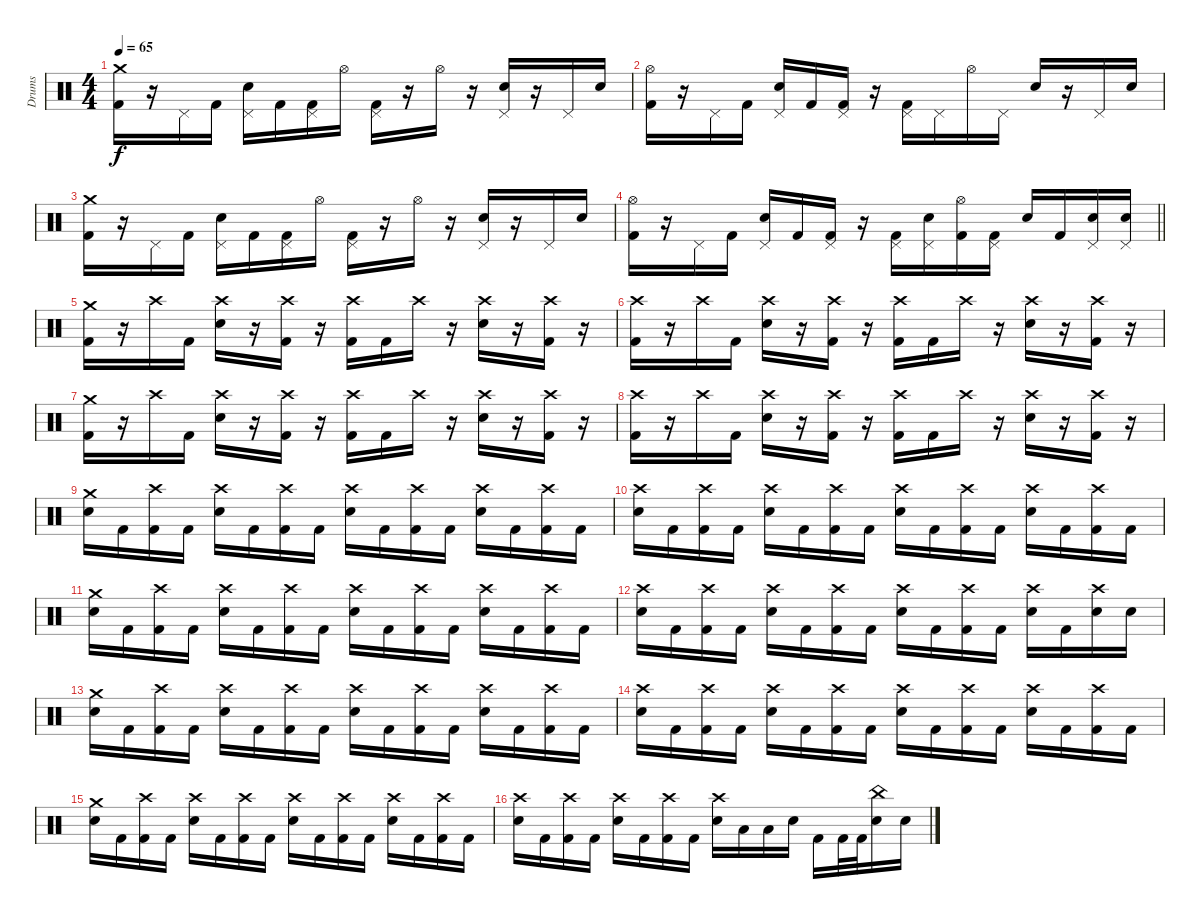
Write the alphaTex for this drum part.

\track ("Drums" "Drums") {instrument percussion}
\staff {score}
\articulation defaults
\ts (4 4)
\tempo 65
\clef neutral
\ks c
("Crash medium (hit)" "Kick (hit) 2").16{dy f} r.16 "Pedal Hi-Hat (hit)".16 "Kick (hit) 2".16 ("Pedal Hi-Hat (hit)" "Electric Snare (hit)").16 "Kick (hit) 2".16 ("Pedal Hi-Hat (hit)" "Kick (hit) 2").16 "Hi-Hat (open)".16 ("Pedal Hi-Hat (hit)" "Kick (hit) 2").16 r.16 "Hi-Hat (open)".16 r.16 ("Pedal Hi-Hat (hit)" "Electric Snare (hit)").16 r.16 "Pedal Hi-Hat (hit)".16 "Electric Snare (hit)".16 |
("Hi-Hat (open)" "Kick (hit) 2").16 r.16 "Pedal Hi-Hat (hit)".16 "Kick (hit) 2".16 ("Pedal Hi-Hat (hit)" "Electric Snare (hit)").16 "Kick (hit) 2".16 ("Pedal Hi-Hat (hit)" "Kick (hit) 2").16 r.16 ("Pedal Hi-Hat (hit)" "Kick (hit) 2").16 "Pedal Hi-Hat (hit)".16 "Hi-Hat (open)".16 "Pedal Hi-Hat (hit)".16 "Electric Snare (hit)".16 r.16 "Pedal Hi-Hat (hit)".16 "Electric Snare (hit)".16 |
("Crash medium (hit)" "Kick (hit) 2").16 r.16 "Pedal Hi-Hat (hit)".16 "Kick (hit) 2".16 ("Pedal Hi-Hat (hit)" "Electric Snare (hit)").16 "Kick (hit) 2".16 ("Pedal Hi-Hat (hit)" "Kick (hit) 2").16 "Hi-Hat (open)".16 ("Pedal Hi-Hat (hit)" "Kick (hit) 2").16 r.16 "Hi-Hat (open)".16 r.16 ("Pedal Hi-Hat (hit)" "Electric Snare (hit)").16 r.16 "Pedal Hi-Hat (hit)".16 "Electric Snare (hit)".16 |
\barLineRight lightlight
("Hi-Hat (open)" "Kick (hit) 2").16 r.16 "Pedal Hi-Hat (hit)".16 "Kick (hit) 2".16 ("Pedal Hi-Hat (hit)" "Electric Snare (hit)").16 "Kick (hit) 2".16 ("Pedal Hi-Hat (hit)" "Kick (hit) 2").16 r.16 ("Pedal Hi-Hat (hit)" "Kick (hit) 2").16 ("Pedal Hi-Hat (hit)" "Electric Snare (hit)").16 ("Hi-Hat (open)" "Kick (hit) 2").16 ("Pedal Hi-Hat (hit)" "Kick (hit) 2").16 "Electric Snare (hit)".16 "Kick (hit) 2".16 ("Pedal Hi-Hat (hit)" "Electric Snare (hit)").16 ("Pedal Hi-Hat (hit)" "Electric Snare (hit)").16 |
("Crash medium (hit)" "Kick (hit) 2").16 r.16 "Crash high (hit)".16 "Kick (hit) 2".16 ("Crash high (hit)" "Electric Snare (hit)").16 r.16 ("Crash high (hit)" "Kick (hit) 2").16 r.16 ("Crash high (hit)" "Kick (hit) 2").16 "Kick (hit) 2".16 "Crash high (hit)".16 r.16 ("Crash high (hit)" "Electric Snare (hit)").16 r.16 ("Crash high (hit)" "Kick (hit) 2").16 r.16 |
("Crash high (hit)" "Kick (hit) 2").16 r.16 "Crash high (hit)".16 "Kick (hit) 2".16 ("Crash high (hit)" "Electric Snare (hit)").16 r.16 ("Crash high (hit)" "Kick (hit) 2").16 r.16 ("Crash high (hit)" "Kick (hit) 2").16 "Kick (hit) 2".16 "Crash high (hit)".16 r.16 ("Crash high (hit)" "Electric Snare (hit)").16 r.16 ("Crash high (hit)" "Kick (hit) 2").16 r.16 |
("Crash medium (hit)" "Kick (hit) 2").16 r.16 "Crash high (hit)".16 "Kick (hit) 2".16 ("Crash high (hit)" "Electric Snare (hit)").16 r.16 ("Crash high (hit)" "Kick (hit) 2").16 r.16 ("Crash high (hit)" "Kick (hit) 2").16 "Kick (hit) 2".16 "Crash high (hit)".16 r.16 ("Crash high (hit)" "Electric Snare (hit)").16 r.16 ("Crash high (hit)" "Kick (hit) 2").16 r.16 |
("Crash high (hit)" "Kick (hit) 2").16 r.16 "Crash high (hit)".16 "Kick (hit) 2".16 ("Crash high (hit)" "Electric Snare (hit)").16 r.16 ("Crash high (hit)" "Kick (hit) 2").16 r.16 ("Crash high (hit)" "Kick (hit) 2").16 "Kick (hit) 2".16 "Crash high (hit)".16 r.16 ("Crash high (hit)" "Electric Snare (hit)").16 r.16 ("Crash high (hit)" "Kick (hit) 2").16 r.16 |
("Crash medium (hit)" "Electric Snare (hit)").16 "Kick (hit) 2".16 ("Crash high (hit)" "Kick (hit) 2").16 "Kick (hit) 2".16 ("Crash high (hit)" "Electric Snare (hit)").16 "Kick (hit) 2".16 ("Crash high (hit)" "Kick (hit) 2").16 "Kick (hit) 2".16 ("Crash high (hit)" "Electric Snare (hit)").16 "Kick (hit) 2".16 ("Crash high (hit)" "Kick (hit) 2").16 "Kick (hit) 2".16 ("Crash high (hit)" "Electric Snare (hit)").16 "Kick (hit) 2".16 ("Crash high (hit)" "Kick (hit) 2").16 "Kick (hit) 2".16 |
("Crash high (hit)" "Electric Snare (hit)").16 "Kick (hit) 2".16 ("Crash high (hit)" "Kick (hit) 2").16 "Kick (hit) 2".16 ("Crash high (hit)" "Electric Snare (hit)").16 "Kick (hit) 2".16 ("Crash high (hit)" "Kick (hit) 2").16 "Kick (hit) 2".16 ("Crash high (hit)" "Electric Snare (hit)").16 "Kick (hit) 2".16 ("Crash high (hit)" "Kick (hit) 2").16 "Kick (hit) 2".16 ("Crash high (hit)" "Electric Snare (hit)").16 "Kick (hit) 2".16 ("Crash high (hit)" "Kick (hit) 2").16 "Kick (hit) 2".16 |
("Crash medium (hit)" "Electric Snare (hit)").16 "Kick (hit) 2".16 ("Crash high (hit)" "Kick (hit) 2").16 "Kick (hit) 2".16 ("Crash high (hit)" "Electric Snare (hit)").16 "Kick (hit) 2".16 ("Crash high (hit)" "Kick (hit) 2").16 "Kick (hit) 2".16 ("Crash high (hit)" "Electric Snare (hit)").16 "Kick (hit) 2".16 ("Crash high (hit)" "Kick (hit) 2").16 "Kick (hit) 2".16 ("Crash high (hit)" "Electric Snare (hit)").16 "Kick (hit) 2".16 ("Crash high (hit)" "Kick (hit) 2").16 "Kick (hit) 2".16 |
("Crash high (hit)" "Electric Snare (hit)").16 "Kick (hit) 2".16 ("Crash high (hit)" "Kick (hit) 2").16 "Kick (hit) 2".16 ("Crash high (hit)" "Electric Snare (hit)").16 "Kick (hit) 2".16 ("Crash high (hit)" "Kick (hit) 2").16 "Kick (hit) 2".16 ("Crash high (hit)" "Electric Snare (hit)").16 "Kick (hit) 2".16 ("Crash high (hit)" "Kick (hit) 2").16 "Kick (hit) 2".16 ("Crash high (hit)" "Electric Snare (hit)").16 "Kick (hit) 2".16 ("Crash high (hit)" "Electric Snare (hit)").16 "Electric Snare (hit)".16 |
("Crash medium (hit)" "Electric Snare (hit)").16 "Kick (hit) 2".16 ("Crash high (hit)" "Kick (hit) 2").16 "Kick (hit) 2".16 ("Crash high (hit)" "Electric Snare (hit)").16 "Kick (hit) 2".16 ("Crash high (hit)" "Kick (hit) 2").16 "Kick (hit) 2".16 ("Crash high (hit)" "Electric Snare (hit)").16 "Kick (hit) 2".16 ("Crash high (hit)" "Kick (hit) 2").16 "Kick (hit) 2".16 ("Crash high (hit)" "Electric Snare (hit)").16 "Kick (hit) 2".16 ("Crash high (hit)" "Kick (hit) 2").16 "Kick (hit) 2".16 |
("Crash high (hit)" "Electric Snare (hit)").16 "Kick (hit) 2".16 ("Crash high (hit)" "Kick (hit) 2").16 "Kick (hit) 2".16 ("Crash high (hit)" "Electric Snare (hit)").16 "Kick (hit) 2".16 ("Crash high (hit)" "Kick (hit) 2").16 "Kick (hit) 2".16 ("Crash high (hit)" "Electric Snare (hit)").16 "Kick (hit) 2".16 ("Crash high (hit)" "Kick (hit) 2").16 "Kick (hit) 2".16 ("Crash high (hit)" "Electric Snare (hit)").16 "Kick (hit) 2".16 ("Crash high (hit)" "Kick (hit) 2").16 "Kick (hit) 2".16 |
("Crash medium (hit)" "Electric Snare (hit)").16 "Kick (hit) 2".16 ("Crash high (hit)" "Kick (hit) 2").16 "Kick (hit) 2".16 ("Crash high (hit)" "Electric Snare (hit)").16 "Kick (hit) 2".16 ("Crash high (hit)" "Kick (hit) 2").16 "Kick (hit) 2".16 ("Crash high (hit)" "Electric Snare (hit)").16 "Kick (hit) 2".16 ("Crash high (hit)" "Kick (hit) 2").16 "Kick (hit) 2".16 ("Crash high (hit)" "Electric Snare (hit)").16 "Kick (hit) 2".16 ("Crash high (hit)" "Kick (hit) 2").16 "Kick (hit) 2".16 |
("Crash high (hit)" "Electric Snare (hit)").16 "Kick (hit) 2".16 ("Crash high (hit)" "Kick (hit) 2").16 "Kick (hit) 2".16 ("Crash high (hit)" "Electric Snare (hit)").16 "Kick (hit) 2".16 ("Crash high (hit)" "Kick (hit) 2").16 "Kick (hit) 2".16 ("Crash high (hit)" "Electric Snare (hit)").16 "Low Tom (hit)".16 "Low Tom (hit)".16 "Electric Snare (hit)".16 "Kick (hit) 2".16 "Kick (hit) 2".32 "Kick (hit) 2".32 ("China (hit)" "Electric Snare (hit)").16 "Electric Snare (hit)".16
